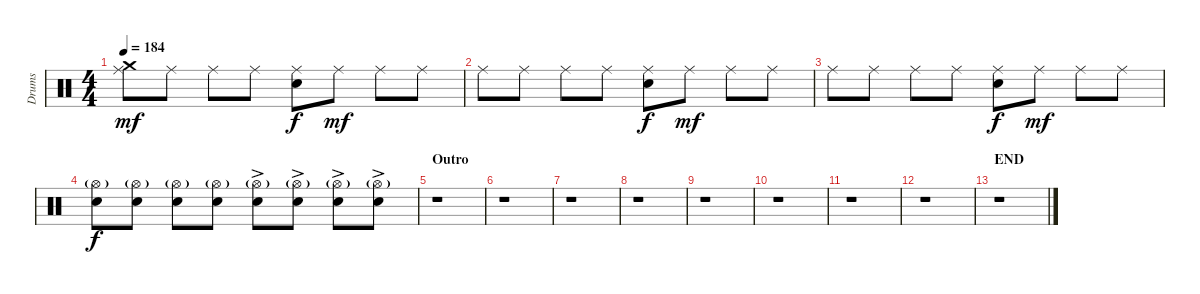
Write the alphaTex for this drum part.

\track ("Drums" "Drums") {instrument percussion}
\staff {score}
\articulation defaults
\ts (4 4)
\tempo 184
\clef neutral
\ks c
("Crash medium (hit)" "Ride (middle)").8{dy mf} "Ride (middle)".8 "Ride (middle)".8 "Ride (middle)".8 ("Ride (middle)" "Electric Snare (hit)").8{dy f} "Ride (middle)".8{dy mf} "Ride (middle)".8 "Ride (middle)".8 |
"Ride (middle)".8 "Ride (middle)".8 "Ride (middle)".8 "Ride (middle)".8 ("Ride (middle)" "Electric Snare (hit)").8{dy f} "Ride (middle)".8{dy mf} "Ride (middle)".8 "Ride (middle)".8 |
"Ride (middle)".8 "Ride (middle)".8 "Ride (middle)".8 "Ride (middle)".8 ("Ride (middle)" "Electric Snare (hit)").8{dy f} "Ride (middle)".8{dy mf} "Ride (middle)".8 "Ride (middle)".8 |
("Hi-Hat (open)"{g} "Electric Snare (hit)").8{dy f} ("Hi-Hat (open)"{g} "Electric Snare (hit)").8 ("Hi-Hat (open)"{g} "Electric Snare (hit)").8 ("Hi-Hat (open)"{g} "Electric Snare (hit)").8 ("Hi-Hat (open)"{g} "Electric Snare (hit)"{ac}).8 ("Hi-Hat (open)"{g} "Electric Snare (hit)"{ac}).8 ("Hi-Hat (open)"{g} "Electric Snare (hit)"{ac}).8 ("Hi-Hat (open)"{g} "Electric Snare (hit)"{ac}).8 |
\section ("" "Outro")
r.1 |
r.1 |
r.1 |
r.1 |
r.1 |
r.1 |
r.1 |
r.1 |
\section ("" "END")
r.1
